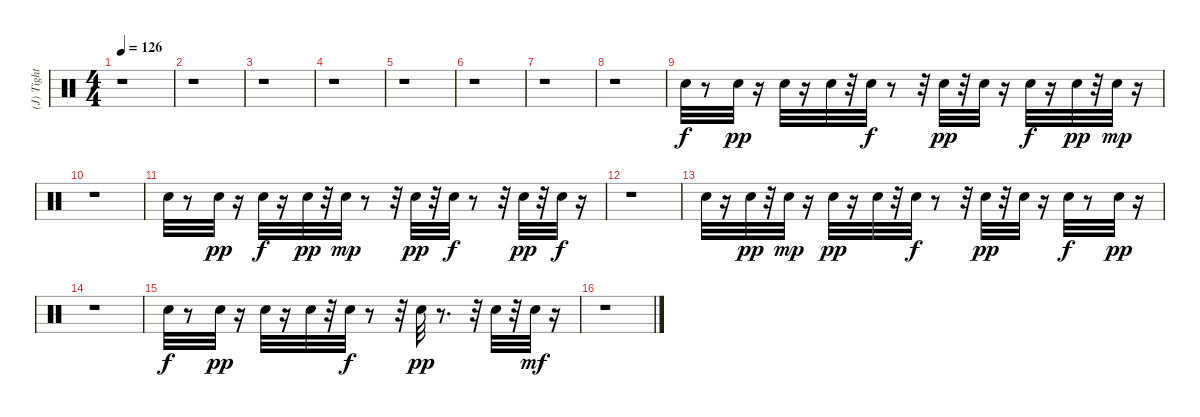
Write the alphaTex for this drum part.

\track ("(J) Tight Snare" "(J) Tight ") {instrument percussion}
\staff {score}
\articulation defaults
\ts (4 4)
\tempo 126
\clef neutral
\ks c
r.1{dy mp} |
r.1 |
r.1 |
r.1 |
r.1 |
r.1 |
r.1 |
r.1 |
"Electric Snare (hit)".32{dy f} r.8 "Electric Snare (hit)".32{dy pp} r.16 "Electric Snare (hit)".32 r.16 "Electric Snare (hit)".32 r.32 "Electric Snare (hit)".32{dy f} r.8 r.32 "Electric Snare (hit)".32{dy pp} r.32 "Electric Snare (hit)".32 r.16 "Electric Snare (hit)".32{dy f} r.16 "Electric Snare (hit)".32{dy pp} r.32 "Electric Snare (hit)".32{dy mp} r.16 |
r.1 |
"Electric Snare (hit)".32 r.8 "Electric Snare (hit)".32{dy pp} r.16 "Electric Snare (hit)".32{dy f} r.16 "Electric Snare (hit)".32{dy pp} r.32 "Electric Snare (hit)".32{dy mp} r.8 r.32 "Electric Snare (hit)".32{dy pp} r.32 "Electric Snare (hit)".32{dy f} r.8 r.32 "Electric Snare (hit)".32{dy pp} r.32 "Electric Snare (hit)".32{dy f} r.16 |
r.1 |
"Electric Snare (hit)".32 r.16 "Electric Snare (hit)".32{dy pp} r.32 "Electric Snare (hit)".32{dy mp} r.16 "Electric Snare (hit)".32{dy pp} r.16 "Electric Snare (hit)".32 r.32 "Electric Snare (hit)".32{dy f} r.8 r.32 "Electric Snare (hit)".32{dy pp} r.32 "Electric Snare (hit)".32 r.16 "Electric Snare (hit)".32{dy f} r.8 "Electric Snare (hit)".32{dy pp} r.16 |
r.1 |
"Electric Snare (hit)".32{dy f} r.8 "Electric Snare (hit)".32{dy pp} r.16 "Electric Snare (hit)".32 r.16 "Electric Snare (hit)".32 r.32 "Electric Snare (hit)".32{dy f} r.8 r.32 "Electric Snare (hit)".32{dy pp} r.8{d} r.32 "Electric Snare (hit)".32 r.32 "Electric Snare (hit)".32{dy mf} r.16 |
r.1
